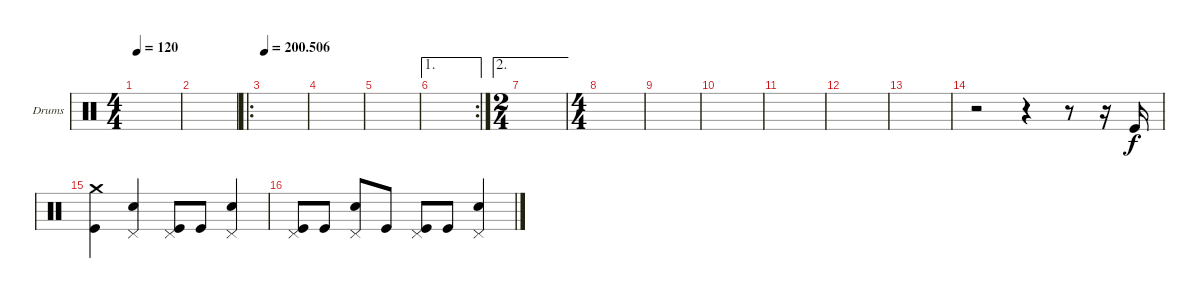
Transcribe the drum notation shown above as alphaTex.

\bracketExtendMode groupsimilarinstruments
\firstSystemTrackNameOrientation horizontal
\otherSystemsTrackNameOrientation horizontal
\track ("Drums" "Drums") {instrument percussion}
\staff {score}
\articulation defaults
\ts (4 4)
\tempo 120
\clef neutral
\ks c
|
|
\ro
\tempo
200.506 |
|
|
\ae 1
\rc 2
|
\ae 2
\ts (2 4)
|
\ts (4 4)
|
|
|
|
|
|
r.2 r.4 r.8 r.16 "Kick (hit)".16 |
("Crash medium (hit)" "Kick (hit)").4 ("Pedal Hi-Hat (hit)" "Snare (hit) 2").4 ("Pedal Hi-Hat (hit)" "Kick (hit)").8 "Kick (hit)".8 ("Pedal Hi-Hat (hit)" "Snare (hit) 2").4 |
("Pedal Hi-Hat (hit)" "Kick (hit)").8 "Kick (hit)".8 ("Pedal Hi-Hat (hit)" "Snare (hit) 2").8 "Kick (hit)".8 ("Pedal Hi-Hat (hit)" "Kick (hit)").8 "Kick (hit)".8 ("Pedal Hi-Hat (hit)" "Snare (hit) 2").4
